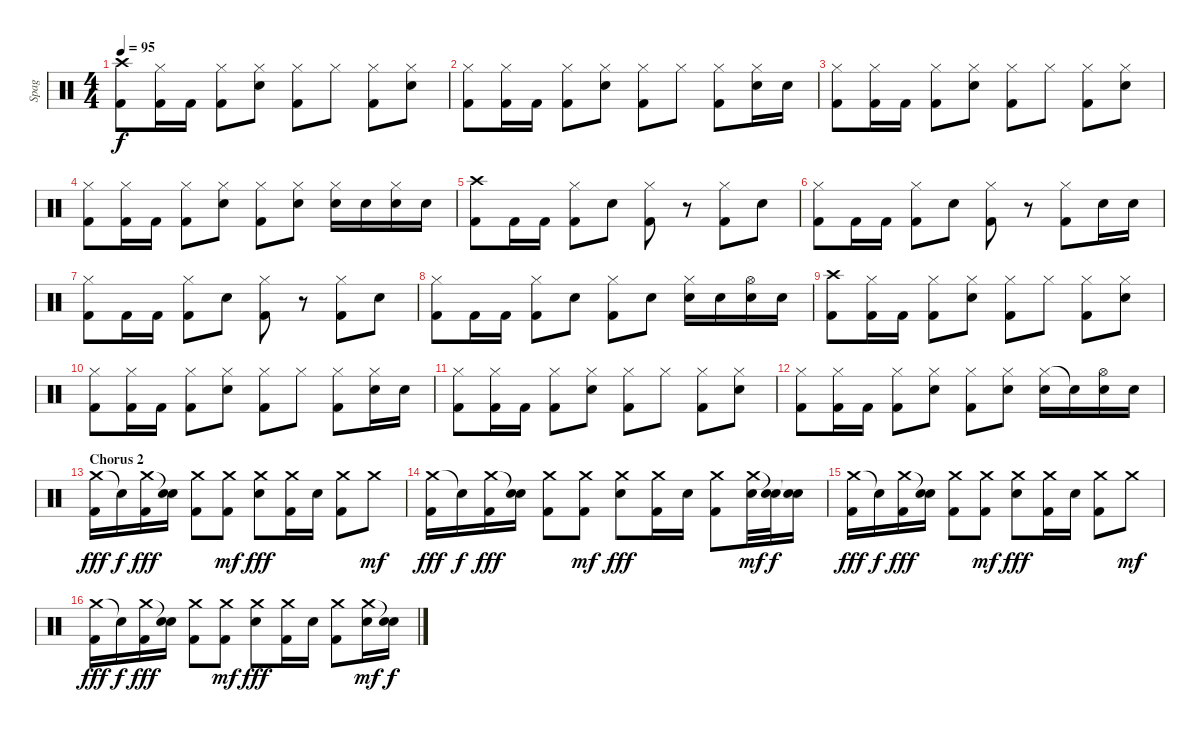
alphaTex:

\track ("Spag" "Spag") {instrument percussion}
\staff {score}
\articulation defaults
\ts (4 4)
\tempo 95
\clef neutral
\ks c
("Crash high (hit)" "Kick (hit) 2").8{dy f} ("Hi-Hat (closed)" "Kick (hit) 2").16 "Kick (hit) 2".16 ("Hi-Hat (closed)" "Kick (hit) 2").8 ("Hi-Hat (closed)" "Electric Snare (hit)").8 ("Hi-Hat (closed)" "Kick (hit) 2").8 "Hi-Hat (closed)".8 ("Hi-Hat (closed)" "Kick (hit) 2").8 ("Hi-Hat (closed)" "Electric Snare (hit)").8 |
("Hi-Hat (closed)" "Kick (hit) 2").8 ("Hi-Hat (closed)" "Kick (hit) 2").16 "Kick (hit) 2".16 ("Hi-Hat (closed)" "Kick (hit) 2").8 ("Hi-Hat (closed)" "Electric Snare (hit)").8 ("Hi-Hat (closed)" "Kick (hit) 2").8 "Hi-Hat (closed)".8 ("Hi-Hat (closed)" "Kick (hit) 2").8 ("Hi-Hat (closed)" "Electric Snare (hit)").16 "Electric Snare (hit)".16 |
("Hi-Hat (closed)" "Kick (hit) 2").8 ("Hi-Hat (closed)" "Kick (hit) 2").16 "Kick (hit) 2".16 ("Hi-Hat (closed)" "Kick (hit) 2").8 ("Hi-Hat (closed)" "Electric Snare (hit)").8 ("Hi-Hat (closed)" "Kick (hit) 2").8 "Hi-Hat (closed)".8 ("Hi-Hat (closed)" "Kick (hit) 2").8 ("Hi-Hat (closed)" "Electric Snare (hit)").8 |
("Hi-Hat (closed)" "Kick (hit) 2").8 ("Hi-Hat (closed)" "Kick (hit) 2").16 "Kick (hit) 2".16 ("Hi-Hat (closed)" "Kick (hit) 2").8 ("Hi-Hat (closed)" "Electric Snare (hit)").8 ("Hi-Hat (closed)" "Kick (hit) 2").8 ("Hi-Hat (closed)" "Electric Snare (hit)").8 ("Hi-Hat (closed)" "Electric Snare (hit)").16 "Electric Snare (hit)".16 ("Hi-Hat (closed)" "Electric Snare (hit)").16 "Electric Snare (hit)".16 |
("Crash high (hit)" "Kick (hit) 2").8 "Kick (hit) 2".16 "Kick (hit) 2".16 ("Hi-Hat (closed)" "Kick (hit) 2").8 "Electric Snare (hit)".8 ("Hi-Hat (closed)" "Kick (hit) 2").8 r.8 ("Hi-Hat (closed)" "Kick (hit) 2").8 "Electric Snare (hit)".8 |
("Hi-Hat (closed)" "Kick (hit) 2").8 "Kick (hit) 2".16 "Kick (hit) 2".16 ("Hi-Hat (closed)" "Kick (hit) 2").8 "Electric Snare (hit)".8 ("Hi-Hat (closed)" "Kick (hit) 2").8 r.8 ("Hi-Hat (closed)" "Kick (hit) 2").8 "Electric Snare (hit)".16 "Electric Snare (hit)".16 |
("Hi-Hat (closed)" "Kick (hit) 2").8 "Kick (hit) 2".16 "Kick (hit) 2".16 ("Hi-Hat (closed)" "Kick (hit) 2").8 "Electric Snare (hit)".8 ("Hi-Hat (closed)" "Kick (hit) 2").8 r.8 ("Hi-Hat (closed)" "Kick (hit) 2").8 "Electric Snare (hit)".8 |
("Hi-Hat (closed)" "Kick (hit) 2").8 "Kick (hit) 2".16 "Kick (hit) 2".16 ("Hi-Hat (closed)" "Kick (hit) 2").8 "Electric Snare (hit)".8 ("Hi-Hat (closed)" "Kick (hit) 2").8 "Electric Snare (hit)".8 ("Hi-Hat (closed)" "Electric Snare (hit)").16 "Electric Snare (hit)".16 ("Hi-Hat (open)" "Electric Snare (hit)").16 "Electric Snare (hit)".16 |
("Crash high (hit)" "Kick (hit) 2").8 ("Hi-Hat (closed)" "Kick (hit) 2").16 "Kick (hit) 2".16 ("Hi-Hat (closed)" "Kick (hit) 2").8 ("Hi-Hat (closed)" "Electric Snare (hit)").8 ("Hi-Hat (closed)" "Kick (hit) 2").8 "Hi-Hat (closed)".8 ("Hi-Hat (closed)" "Kick (hit) 2").8 ("Hi-Hat (closed)" "Electric Snare (hit)").8 |
("Hi-Hat (closed)" "Kick (hit) 2").8 ("Hi-Hat (closed)" "Kick (hit) 2").16 "Kick (hit) 2".16 ("Hi-Hat (closed)" "Kick (hit) 2").8 ("Hi-Hat (closed)" "Electric Snare (hit)").8 ("Hi-Hat (closed)" "Kick (hit) 2").8 "Hi-Hat (closed)".8 ("Hi-Hat (closed)" "Kick (hit) 2").8 ("Hi-Hat (closed)" "Electric Snare (hit)").16 "Electric Snare (hit)".16 |
("Hi-Hat (closed)" "Kick (hit) 2").8 ("Hi-Hat (closed)" "Kick (hit) 2").16 "Kick (hit) 2".16 ("Hi-Hat (closed)" "Kick (hit) 2").8 ("Hi-Hat (closed)" "Electric Snare (hit)").8 ("Hi-Hat (closed)" "Kick (hit) 2").8 "Hi-Hat (closed)".8 ("Hi-Hat (closed)" "Kick (hit) 2").8 ("Hi-Hat (closed)" "Electric Snare (hit)").8 |
("Hi-Hat (closed)" "Kick (hit) 2").8 ("Hi-Hat (closed)" "Kick (hit) 2").16 "Kick (hit) 2".16 ("Hi-Hat (closed)" "Kick (hit) 2").8 ("Hi-Hat (closed)" "Electric Snare (hit)").8 ("Hi-Hat (closed)" "Kick (hit) 2").8 ("Hi-Hat (closed)" "Electric Snare (hit)").8 ("Hi-Hat (closed)" "Electric Snare (hit)").16 "Electric Snare (hit)"{t}.16 ("Hi-Hat (open)" "Electric Snare (hit)").16 "Electric Snare (hit)".16 |
\section ("" "Chorus 2")
("Crash medium (hit)" "Kick (hit) 2").16{dy fff} "Snare (hit)"{t}.16{dy f} ("Crash medium (hit)" "Kick (hit) 2").16{dy fff} ("Snare (hit)"{t} "Electric Snare (hit)").16 ("Crash medium (hit)" "Kick (hit) 2").8 ("Crash medium (hit)" "Kick (hit) 2").8{dy mf} ("Crash medium (hit)" "Electric Snare (hit)").8{dy fff} ("Crash medium (hit)" "Kick (hit) 2").16 "Electric Snare (hit)".16 ("Crash medium (hit)" "Kick (hit) 2").8 "Crash medium (hit)".8{dy mf} |
("Crash medium (hit)" "Kick (hit) 2").16{dy fff} "Snare (hit)"{t}.16{dy f} ("Crash medium (hit)" "Kick (hit) 2").16{dy fff} ("Snare (hit)"{t} "Electric Snare (hit)").16 ("Crash medium (hit)" "Kick (hit) 2").8 ("Crash medium (hit)" "Kick (hit) 2").8{dy mf} ("Crash medium (hit)" "Electric Snare (hit)").8{dy fff} ("Crash medium (hit)" "Kick (hit) 2").16 "Electric Snare (hit)".16 ("Crash medium (hit)" "Kick (hit) 2").8 ("Crash medium (hit)" "Electric Snare (hit)").32{dy mf} ("Snare (hit)"{t} "Electric Snare (hit)").32{dy f} ("Snare (hit)"{t} "Electric Snare (hit)").16 |
("Crash medium (hit)" "Kick (hit) 2").16{dy fff} "Snare (hit)"{t}.16{dy f} ("Crash medium (hit)" "Kick (hit) 2").16{dy fff} ("Snare (hit)"{t} "Electric Snare (hit)").16 ("Crash medium (hit)" "Kick (hit) 2").8 ("Crash medium (hit)" "Kick (hit) 2").8{dy mf} ("Crash medium (hit)" "Electric Snare (hit)").8{dy fff} ("Crash medium (hit)" "Kick (hit) 2").16 "Electric Snare (hit)".16 ("Crash medium (hit)" "Kick (hit) 2").8 "Crash medium (hit)".8{dy mf} |
("Crash medium (hit)" "Kick (hit) 2").16{dy fff} "Snare (hit)"{t}.16{dy f} ("Crash medium (hit)" "Kick (hit) 2").16{dy fff} ("Snare (hit)"{t} "Electric Snare (hit)").16 ("Crash medium (hit)" "Kick (hit) 2").8 ("Crash medium (hit)" "Kick (hit) 2").8{dy mf} ("Crash medium (hit)" "Electric Snare (hit)").8{dy fff} ("Crash medium (hit)" "Kick (hit) 2").16 "Electric Snare (hit)".16 ("Crash medium (hit)" "Kick (hit) 2").8 ("Crash medium (hit)" "Electric Snare (hit)").16{dy mf} ("Snare (hit)"{t} "Electric Snare (hit)").16{dy f}
